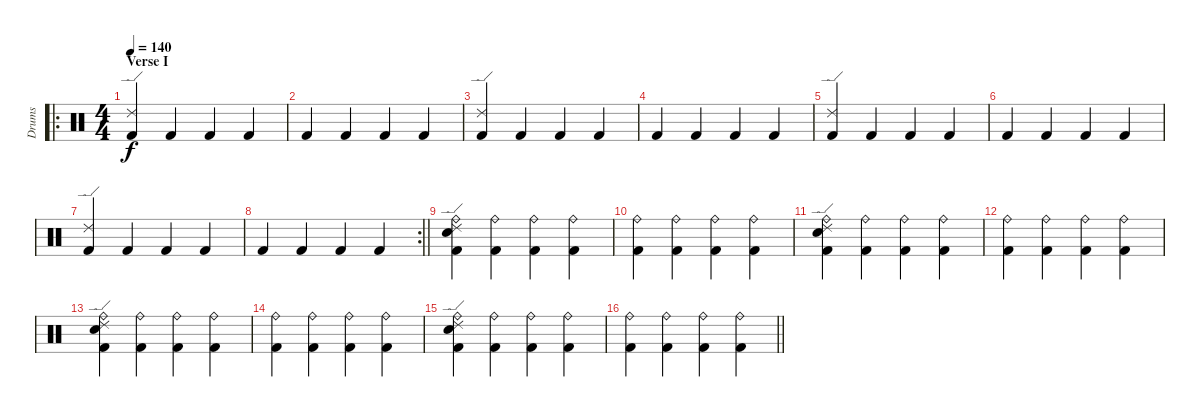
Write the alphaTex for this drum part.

\track ("Drums" "Drums") {instrument percussion}
\staff {score}
\articulation defaults
\ro
\ts (4 4)
\section ("" "Verse I")
\tempo 140
\clef neutral
\ks c
("Ride (edge) 2" "Kick (hit) 2").4{dy f} "Kick (hit) 2".4 "Kick (hit) 2".4 "Kick (hit) 2".4 |
"Kick (hit) 2".4 "Kick (hit) 2".4 "Kick (hit) 2".4 "Kick (hit) 2".4 |
("Ride (edge) 2" "Kick (hit) 2").4 "Kick (hit) 2".4 "Kick (hit) 2".4 "Kick (hit) 2".4 |
"Kick (hit) 2".4 "Kick (hit) 2".4 "Kick (hit) 2".4 "Kick (hit) 2".4 |
("Ride (edge) 2" "Kick (hit) 2").4 "Kick (hit) 2".4 "Kick (hit) 2".4 "Kick (hit) 2".4 |
"Kick (hit) 2".4 "Kick (hit) 2".4 "Kick (hit) 2".4 "Kick (hit) 2".4 |
("Ride (edge) 2" "Kick (hit) 2").4 "Kick (hit) 2".4 "Kick (hit) 2".4 "Kick (hit) 2".4 |
\rc 2
\barLineRight lightlight "Kick (hit) 2".4 "Kick (hit) 2".4 "Kick (hit) 2".4 "Kick (hit) 2".4
|
("Metronome (bell)" "Ride (edge) 2" "Ride (bell)" "Kick (hit) 2").4 ("Ride (bell)" "Kick (hit) 2").4 ("Ride (bell)" "Kick (hit) 2").4 ("Ride (bell)" "Kick (hit) 2").4 |
("Ride (bell)" "Kick (hit) 2").4 ("Ride (bell)" "Kick (hit) 2").4 ("Ride (bell)" "Kick (hit) 2").4 ("Ride (bell)" "Kick (hit) 2").4 |
("Metronome (bell)" "Ride (edge) 2" "Ride (bell)" "Kick (hit) 2").4 ("Ride (bell)" "Kick (hit) 2").4 ("Ride (bell)" "Kick (hit) 2").4 ("Ride (bell)" "Kick (hit) 2").4 |
("Ride (bell)" "Kick (hit) 2").4 ("Ride (bell)" "Kick (hit) 2").4 ("Ride (bell)" "Kick (hit) 2").4 ("Ride (bell)" "Kick (hit) 2").4 |
("Metronome (bell)" "Ride (edge) 2" "Ride (bell)" "Kick (hit) 2").4 ("Ride (bell)" "Kick (hit) 2").4 ("Ride (bell)" "Kick (hit) 2").4 ("Ride (bell)" "Kick (hit) 2").4 |
("Ride (bell)" "Kick (hit) 2").4 ("Ride (bell)" "Kick (hit) 2").4 ("Ride (bell)" "Kick (hit) 2").4 ("Ride (bell)" "Kick (hit) 2").4 |
("Metronome (bell)" "Ride (edge) 2" "Ride (bell)" "Kick (hit) 2").4 ("Ride (bell)" "Kick (hit) 2").4 ("Ride (bell)" "Kick (hit) 2").4 ("Ride (bell)" "Kick (hit) 2").4 |
\barLineRight lightlight
("Ride (bell)" "Kick (hit) 2").4 ("Ride (bell)" "Kick (hit) 2").4 ("Ride (bell)" "Kick (hit) 2").4 ("Ride (bell)" "Kick (hit) 2").4
